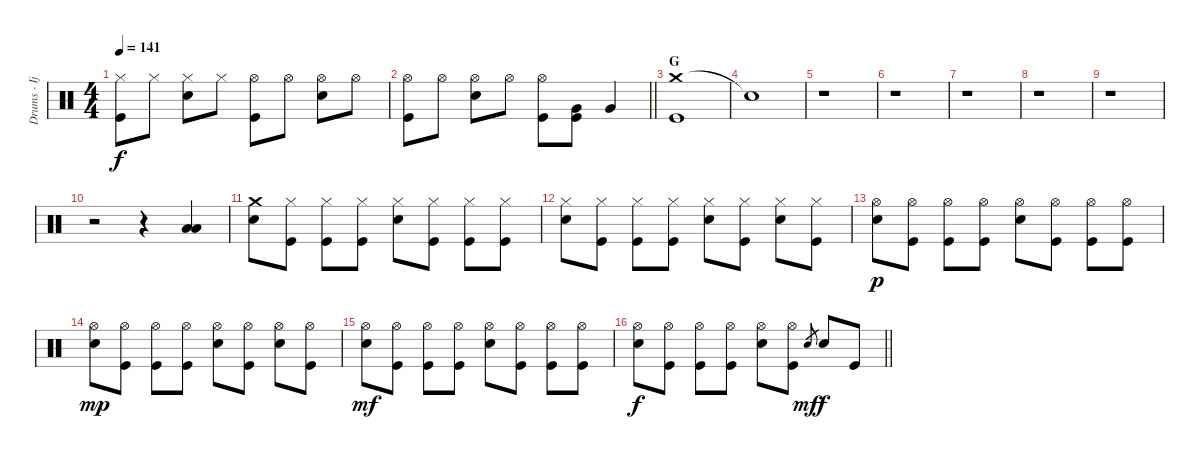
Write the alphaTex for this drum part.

\track ("Drums - Ijichi" "Drums - Ij") {instrument percussion}
\staff {score}
\articulation defaults
\ts (4 4)
\tempo 141
\clef neutral
\ks c
("Hi-Hat (closed)" "Kick (hit)").8{dy f} "Hi-Hat (closed)".8 ("Hi-Hat (closed)" "Electric Snare (hit)").8 "Hi-Hat (closed)".8 ("Hi-Hat (open)" "Kick (hit)").8 "Hi-Hat (open)".8 ("Hi-Hat (open)" "Electric Snare (hit)").8 "Hi-Hat (open)".8 |
\barLineRight lightlight
("Hi-Hat (open)" "Kick (hit)").8 "Hi-Hat (open)".8 ("Hi-Hat (open)" "Electric Snare (hit)").8 "Hi-Hat (open)".8 ("Hi-Hat (open)" "Kick (hit)").8 ("Very Low Tom (hit)" "Kick (hit)").8 "Very Low Tom (hit)".4 |
\section ("" "G")
("Crash medium (hit)" "Kick (hit)").1 |
"Snare (hit)"{t}.1 |
r.1 |
r.1 |
r.1 |
r.1 |
r.1 |
r.2 r.4 ("Low Tom (hit)" "Low Tom (hit)").4 |
("Crash medium (hit)" "Electric Snare (hit)").8 ("Hi-Hat (closed)" "Kick (hit)").8 ("Hi-Hat (closed)" "Kick (hit)").8 ("Hi-Hat (closed)" "Kick (hit)").8 ("Hi-Hat (closed)" "Electric Snare (hit)").8 ("Hi-Hat (closed)" "Kick (hit)").8 ("Hi-Hat (closed)" "Kick (hit)").8 ("Hi-Hat (closed)" "Kick (hit)").8 |
("Hi-Hat (closed)" "Electric Snare (hit)").8 ("Hi-Hat (closed)" "Kick (hit)").8 ("Hi-Hat (closed)" "Kick (hit)").8 ("Hi-Hat (closed)" "Kick (hit)").8 ("Hi-Hat (closed)" "Electric Snare (hit)").8 ("Hi-Hat (closed)" "Kick (hit)").8 ("Hi-Hat (closed)" "Electric Snare (hit)").8 ("Hi-Hat (closed)" "Kick (hit)").8 |
("Hi-Hat (open)" "Electric Snare (hit)").8{dy p} ("Hi-Hat (open)" "Kick (hit)").8 ("Hi-Hat (open)" "Kick (hit)").8 ("Hi-Hat (open)" "Kick (hit)").8 ("Hi-Hat (open)" "Electric Snare (hit)").8 ("Hi-Hat (open)" "Kick (hit)").8 ("Hi-Hat (open)" "Kick (hit)").8 ("Hi-Hat (open)" "Kick (hit)").8 |
("Hi-Hat (open)" "Electric Snare (hit)").8{dy mp} ("Hi-Hat (open)" "Kick (hit)").8 ("Hi-Hat (open)" "Kick (hit)").8 ("Hi-Hat (open)" "Kick (hit)").8 ("Hi-Hat (open)" "Electric Snare (hit)").8 ("Hi-Hat (open)" "Kick (hit)").8 ("Hi-Hat (open)" "Electric Snare (hit)").8 ("Hi-Hat (open)" "Kick (hit)").8 |
("Hi-Hat (open)" "Electric Snare (hit)").8{dy mf} ("Hi-Hat (open)" "Kick (hit)").8 ("Hi-Hat (open)" "Kick (hit)").8 ("Hi-Hat (open)" "Kick (hit)").8 ("Hi-Hat (open)" "Electric Snare (hit)").8 ("Hi-Hat (open)" "Kick (hit)").8 ("Hi-Hat (open)" "Kick (hit)").8 ("Hi-Hat (open)" "Kick (hit)").8 |
\barLineRight lightlight
("Hi-Hat (open)" "Electric Snare (hit)").8{dy f} ("Hi-Hat (open)" "Kick (hit)").8 ("Hi-Hat (open)" "Kick (hit)").8 ("Hi-Hat (open)" "Kick (hit)").8 ("Hi-Hat (open)" "Electric Snare (hit)").8 ("Hi-Hat (open)" "Kick (hit)").8 "Electric Snare (hit)".8{gr dy mf} "Electric Snare (hit)".8{dy f} "Kick (hit)".8
